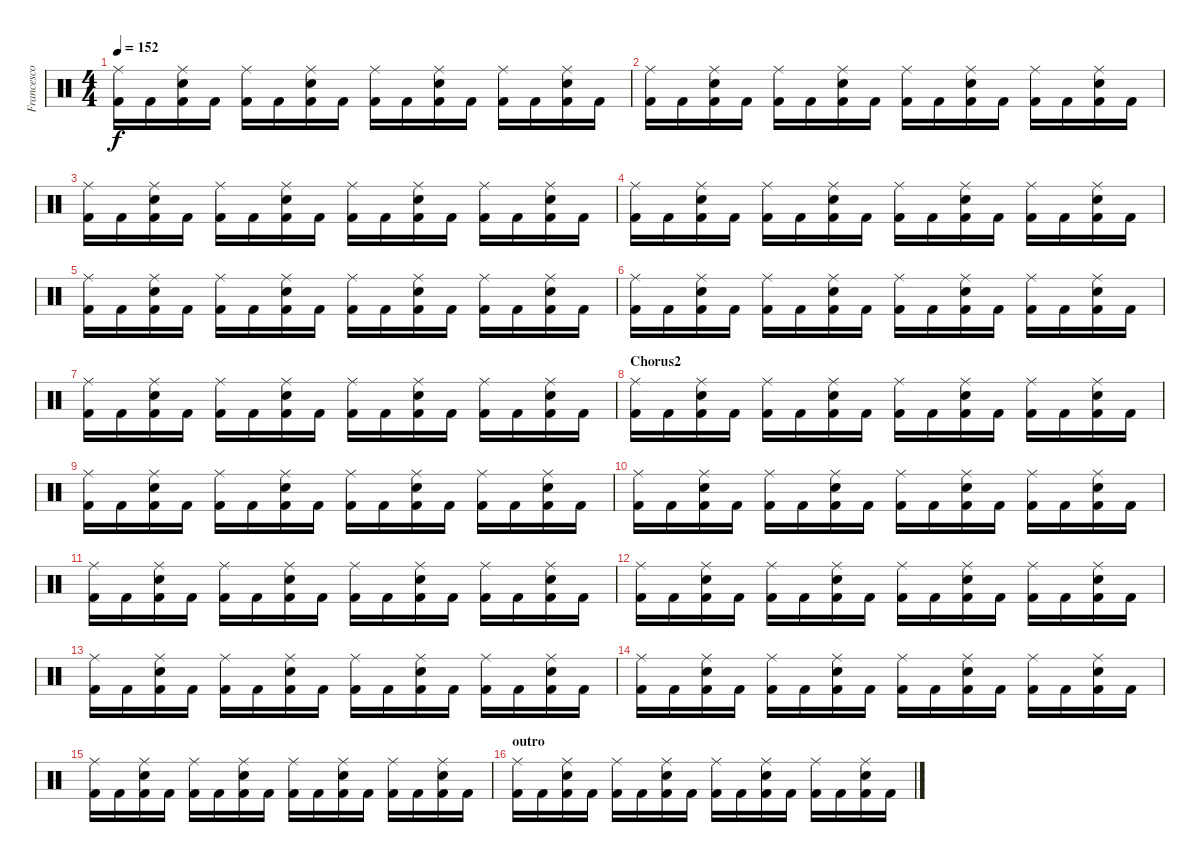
\track ("Francesco Tresa" "Francesco ") {instrument percussion}
\staff {score}
\articulation defaults
\ts (4 4)
\tempo 152
\clef neutral
\ks c
("Kick (hit) 2" "Ride (middle)").16{dy f} "Kick (hit) 2".16 ("Kick (hit) 2" "Snare (hit) 2" "Ride (middle)").16 "Kick (hit) 2".16 ("Kick (hit) 2" "Ride (middle)").16 "Kick (hit) 2".16 ("Kick (hit) 2" "Snare (hit) 2" "Ride (middle)").16 "Kick (hit) 2".16 ("Kick (hit) 2" "Ride (middle)").16 "Kick (hit) 2".16 ("Kick (hit) 2" "Snare (hit) 2" "Ride (middle)").16 "Kick (hit) 2".16 ("Kick (hit) 2" "Ride (middle)").16 "Kick (hit) 2".16 ("Kick (hit) 2" "Snare (hit) 2" "Ride (middle)").16 "Kick (hit) 2".16 |
("Kick (hit) 2" "Ride (middle)").16 "Kick (hit) 2".16 ("Kick (hit) 2" "Snare (hit) 2" "Ride (middle)").16 "Kick (hit) 2".16 ("Kick (hit) 2" "Ride (middle)").16 "Kick (hit) 2".16 ("Kick (hit) 2" "Snare (hit) 2" "Ride (middle)").16 "Kick (hit) 2".16 ("Kick (hit) 2" "Ride (middle)").16 "Kick (hit) 2".16 ("Kick (hit) 2" "Snare (hit) 2" "Ride (middle)").16 "Kick (hit) 2".16 ("Kick (hit) 2" "Ride (middle)").16 "Kick (hit) 2".16 ("Kick (hit) 2" "Snare (hit) 2" "Ride (middle)").16 "Kick (hit) 2".16 |
("Kick (hit) 2" "Ride (middle)").16 "Kick (hit) 2".16 ("Kick (hit) 2" "Snare (hit) 2" "Ride (middle)").16 "Kick (hit) 2".16 ("Kick (hit) 2" "Ride (middle)").16 "Kick (hit) 2".16 ("Kick (hit) 2" "Snare (hit) 2" "Ride (middle)").16 "Kick (hit) 2".16 ("Kick (hit) 2" "Ride (middle)").16 "Kick (hit) 2".16 ("Kick (hit) 2" "Snare (hit) 2" "Ride (middle)").16 "Kick (hit) 2".16 ("Kick (hit) 2" "Ride (middle)").16 "Kick (hit) 2".16 ("Kick (hit) 2" "Snare (hit) 2" "Ride (middle)").16 "Kick (hit) 2".16 |
("Kick (hit) 2" "Ride (middle)").16 "Kick (hit) 2".16 ("Kick (hit) 2" "Snare (hit) 2" "Ride (middle)").16 "Kick (hit) 2".16 ("Kick (hit) 2" "Ride (middle)").16 "Kick (hit) 2".16 ("Kick (hit) 2" "Snare (hit) 2" "Ride (middle)").16 "Kick (hit) 2".16 ("Kick (hit) 2" "Ride (middle)").16 "Kick (hit) 2".16 ("Kick (hit) 2" "Snare (hit) 2" "Ride (middle)").16 "Kick (hit) 2".16 ("Kick (hit) 2" "Ride (middle)").16 "Kick (hit) 2".16 ("Kick (hit) 2" "Snare (hit) 2" "Ride (middle)").16 "Kick (hit) 2".16 |
("Kick (hit) 2" "Ride (middle)").16 "Kick (hit) 2".16 ("Kick (hit) 2" "Snare (hit) 2" "Ride (middle)").16 "Kick (hit) 2".16 ("Kick (hit) 2" "Ride (middle)").16 "Kick (hit) 2".16 ("Kick (hit) 2" "Snare (hit) 2" "Ride (middle)").16 "Kick (hit) 2".16 ("Kick (hit) 2" "Ride (middle)").16 "Kick (hit) 2".16 ("Kick (hit) 2" "Snare (hit) 2" "Ride (middle)").16 "Kick (hit) 2".16 ("Kick (hit) 2" "Ride (middle)").16 "Kick (hit) 2".16 ("Kick (hit) 2" "Snare (hit) 2" "Ride (middle)").16 "Kick (hit) 2".16 |
("Kick (hit) 2" "Ride (middle)").16 "Kick (hit) 2".16 ("Kick (hit) 2" "Snare (hit) 2" "Ride (middle)").16 "Kick (hit) 2".16 ("Kick (hit) 2" "Ride (middle)").16 "Kick (hit) 2".16 ("Kick (hit) 2" "Snare (hit) 2" "Ride (middle)").16 "Kick (hit) 2".16 ("Kick (hit) 2" "Ride (middle)").16 "Kick (hit) 2".16 ("Kick (hit) 2" "Snare (hit) 2" "Ride (middle)").16 "Kick (hit) 2".16 ("Kick (hit) 2" "Ride (middle)").16 "Kick (hit) 2".16 ("Kick (hit) 2" "Snare (hit) 2" "Ride (middle)").16 "Kick (hit) 2".16 |
("Kick (hit) 2" "Ride (middle)").16 "Kick (hit) 2".16 ("Kick (hit) 2" "Snare (hit) 2" "Ride (middle)").16 "Kick (hit) 2".16 ("Kick (hit) 2" "Ride (middle)").16 "Kick (hit) 2".16 ("Kick (hit) 2" "Snare (hit) 2" "Ride (middle)").16 "Kick (hit) 2".16 ("Kick (hit) 2" "Ride (middle)").16 "Kick (hit) 2".16 ("Kick (hit) 2" "Snare (hit) 2" "Ride (middle)").16 "Kick (hit) 2".16 ("Kick (hit) 2" "Ride (middle)").16 "Kick (hit) 2".16 ("Kick (hit) 2" "Snare (hit) 2" "Ride (middle)").16 "Kick (hit) 2".16 |
\section ("" "Chorus2")
("Kick (hit) 2" "Ride (middle)").16 "Kick (hit) 2".16 ("Kick (hit) 2" "Snare (hit) 2" "Ride (middle)").16 "Kick (hit) 2".16 ("Kick (hit) 2" "Ride (middle)").16 "Kick (hit) 2".16 ("Kick (hit) 2" "Snare (hit) 2" "Ride (middle)").16 "Kick (hit) 2".16 ("Kick (hit) 2" "Ride (middle)").16 "Kick (hit) 2".16 ("Kick (hit) 2" "Snare (hit) 2" "Ride (middle)").16 "Kick (hit) 2".16 ("Kick (hit) 2" "Ride (middle)").16 "Kick (hit) 2".16 ("Kick (hit) 2" "Snare (hit) 2" "Ride (middle)").16 "Kick (hit) 2".16 |
("Kick (hit) 2" "Ride (middle)").16 "Kick (hit) 2".16 ("Kick (hit) 2" "Snare (hit) 2" "Ride (middle)").16 "Kick (hit) 2".16 ("Kick (hit) 2" "Ride (middle)").16 "Kick (hit) 2".16 ("Kick (hit) 2" "Snare (hit) 2" "Ride (middle)").16 "Kick (hit) 2".16 ("Kick (hit) 2" "Ride (middle)").16 "Kick (hit) 2".16 ("Kick (hit) 2" "Snare (hit) 2" "Ride (middle)").16 "Kick (hit) 2".16 ("Kick (hit) 2" "Ride (middle)").16 "Kick (hit) 2".16 ("Kick (hit) 2" "Snare (hit) 2" "Ride (middle)").16 "Kick (hit) 2".16 |
("Kick (hit) 2" "Ride (middle)").16 "Kick (hit) 2".16 ("Kick (hit) 2" "Snare (hit) 2" "Ride (middle)").16 "Kick (hit) 2".16 ("Kick (hit) 2" "Ride (middle)").16 "Kick (hit) 2".16 ("Kick (hit) 2" "Snare (hit) 2" "Ride (middle)").16 "Kick (hit) 2".16 ("Kick (hit) 2" "Ride (middle)").16 "Kick (hit) 2".16 ("Kick (hit) 2" "Snare (hit) 2" "Ride (middle)").16 "Kick (hit) 2".16 ("Kick (hit) 2" "Ride (middle)").16 "Kick (hit) 2".16 ("Kick (hit) 2" "Snare (hit) 2" "Ride (middle)").16 "Kick (hit) 2".16 |
("Kick (hit) 2" "Ride (middle)").16 "Kick (hit) 2".16 ("Kick (hit) 2" "Snare (hit) 2" "Ride (middle)").16 "Kick (hit) 2".16 ("Kick (hit) 2" "Ride (middle)").16 "Kick (hit) 2".16 ("Kick (hit) 2" "Snare (hit) 2" "Ride (middle)").16 "Kick (hit) 2".16 ("Kick (hit) 2" "Ride (middle)").16 "Kick (hit) 2".16 ("Kick (hit) 2" "Snare (hit) 2" "Ride (middle)").16 "Kick (hit) 2".16 ("Kick (hit) 2" "Ride (middle)").16 "Kick (hit) 2".16 ("Kick (hit) 2" "Snare (hit) 2" "Ride (middle)").16 "Kick (hit) 2".16 |
("Kick (hit) 2" "Ride (middle)").16 "Kick (hit) 2".16 ("Kick (hit) 2" "Snare (hit) 2" "Ride (middle)").16 "Kick (hit) 2".16 ("Kick (hit) 2" "Ride (middle)").16 "Kick (hit) 2".16 ("Kick (hit) 2" "Snare (hit) 2" "Ride (middle)").16 "Kick (hit) 2".16 ("Kick (hit) 2" "Ride (middle)").16 "Kick (hit) 2".16 ("Kick (hit) 2" "Snare (hit) 2" "Ride (middle)").16 "Kick (hit) 2".16 ("Kick (hit) 2" "Ride (middle)").16 "Kick (hit) 2".16 ("Kick (hit) 2" "Snare (hit) 2" "Ride (middle)").16 "Kick (hit) 2".16 |
("Kick (hit) 2" "Ride (middle)").16 "Kick (hit) 2".16 ("Kick (hit) 2" "Snare (hit) 2" "Ride (middle)").16 "Kick (hit) 2".16 ("Kick (hit) 2" "Ride (middle)").16 "Kick (hit) 2".16 ("Kick (hit) 2" "Snare (hit) 2" "Ride (middle)").16 "Kick (hit) 2".16 ("Kick (hit) 2" "Ride (middle)").16 "Kick (hit) 2".16 ("Kick (hit) 2" "Snare (hit) 2" "Ride (middle)").16 "Kick (hit) 2".16 ("Kick (hit) 2" "Ride (middle)").16 "Kick (hit) 2".16 ("Kick (hit) 2" "Snare (hit) 2" "Ride (middle)").16 "Kick (hit) 2".16 |
("Kick (hit) 2" "Ride (middle)").16 "Kick (hit) 2".16 ("Kick (hit) 2" "Snare (hit) 2" "Ride (middle)").16 "Kick (hit) 2".16 ("Kick (hit) 2" "Ride (middle)").16 "Kick (hit) 2".16 ("Kick (hit) 2" "Snare (hit) 2" "Ride (middle)").16 "Kick (hit) 2".16 ("Kick (hit) 2" "Ride (middle)").16 "Kick (hit) 2".16 ("Kick (hit) 2" "Snare (hit) 2" "Ride (middle)").16 "Kick (hit) 2".16 ("Kick (hit) 2" "Ride (middle)").16 "Kick (hit) 2".16 ("Kick (hit) 2" "Snare (hit) 2" "Ride (middle)").16 "Kick (hit) 2".16 |
("Kick (hit) 2" "Ride (middle)").16 "Kick (hit) 2".16 ("Kick (hit) 2" "Snare (hit) 2" "Ride (middle)").16 "Kick (hit) 2".16 ("Kick (hit) 2" "Ride (middle)").16 "Kick (hit) 2".16 ("Kick (hit) 2" "Snare (hit) 2" "Ride (middle)").16 "Kick (hit) 2".16 ("Kick (hit) 2" "Ride (middle)").16 "Kick (hit) 2".16 ("Kick (hit) 2" "Snare (hit) 2" "Ride (middle)").16 "Kick (hit) 2".16 ("Kick (hit) 2" "Ride (middle)").16 "Kick (hit) 2".16 ("Kick (hit) 2" "Snare (hit) 2" "Ride (middle)").16 "Kick (hit) 2".16 |
\section ("" "outro")
("Kick (hit) 2" "Ride (middle)").16 "Kick (hit) 2".16 ("Kick (hit) 2" "Snare (hit) 2" "Ride (middle)").16 "Kick (hit) 2".16 ("Kick (hit) 2" "Ride (middle)").16 "Kick (hit) 2".16 ("Kick (hit) 2" "Snare (hit) 2" "Ride (middle)").16 "Kick (hit) 2".16 ("Kick (hit) 2" "Ride (middle)").16 "Kick (hit) 2".16 ("Kick (hit) 2" "Snare (hit) 2" "Ride (middle)").16 "Kick (hit) 2".16 ("Kick (hit) 2" "Ride (middle)").16 "Kick (hit) 2".16 ("Kick (hit) 2" "Snare (hit) 2" "Ride (middle)").16 "Kick (hit) 2".16
